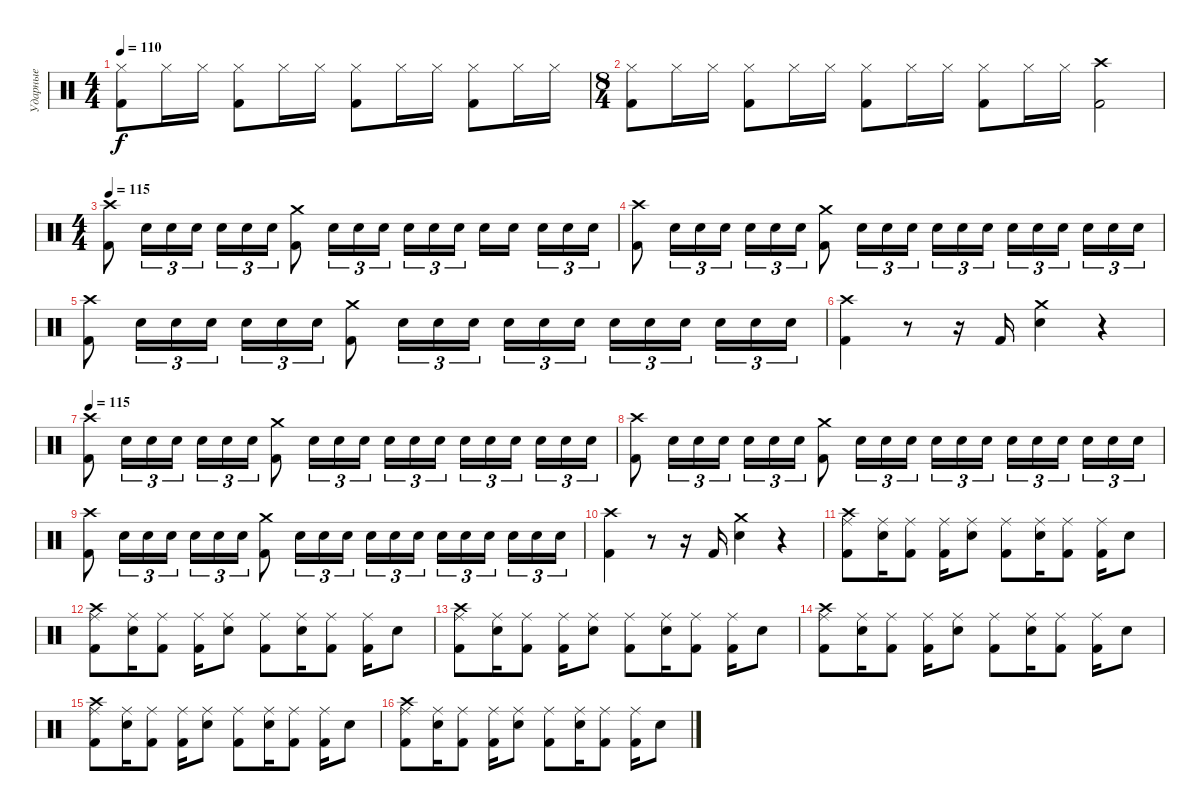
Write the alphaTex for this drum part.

\track ("Ударные" "Ударные") {instrument percussion}
\staff {score}
\articulation defaults
\ts (4 4)
\tempo 110
\clef neutral
\ks c
("Kick (hit) 2" "Hi-Hat (closed)").8{dy f} "Hi-Hat (closed)".16 "Hi-Hat (closed)".16 ("Kick (hit) 2" "Hi-Hat (closed)").8 "Hi-Hat (closed)".16 "Hi-Hat (closed)".16 ("Kick (hit) 2" "Hi-Hat (closed)").8 "Hi-Hat (closed)".16 "Hi-Hat (closed)".16 ("Kick (hit) 2" "Hi-Hat (closed)").8 "Hi-Hat (closed)".16 "Hi-Hat (closed)".16 |
\ts (8 4)
("Kick (hit) 2" "Hi-Hat (closed)").8 "Hi-Hat (closed)".16 "Hi-Hat (closed)".16 ("Kick (hit) 2" "Hi-Hat (closed)").8 "Hi-Hat (closed)".16 "Hi-Hat (closed)".16 ("Kick (hit) 2" "Hi-Hat (closed)").8 "Hi-Hat (closed)".16 "Hi-Hat (closed)".16 ("Kick (hit) 2" "Hi-Hat (closed)").8 "Hi-Hat (closed)".16 "Hi-Hat (closed)".16 ("Crash high (hit)" "Kick (hit) 2").2 |
\ts (4 4)
\tempo 115
("Kick (hit) 2" "Crash high (hit)").8 "Electric Snare (hit)".16{tu (3 2)} "Electric Snare (hit)".16{tu (3 2)} "Electric Snare (hit)".16{tu (3 2)} "Electric Snare (hit)".16{tu (3 2)} "Electric Snare (hit)".16{tu (3 2)} "Electric Snare (hit)".16{tu (3 2)} ("Kick (hit) 2" "Crash medium (hit)").8 "Electric Snare (hit)".16{tu (3 2)} "Electric Snare (hit)".16{tu (3 2)} "Electric Snare (hit)".16{tu (3 2)} "Electric Snare (hit)".16{tu (3 2)} "Electric Snare (hit)".16{tu (3 2)} "Electric Snare (hit)".16{tu (3 2)} "Electric Snare (hit)".16 "Electric Snare (hit)".16 "Electric Snare (hit)".16{tu (3 2)} "Electric Snare (hit)".16{tu (3 2)} "Electric Snare (hit)".16{tu (3 2)} |
("Kick (hit) 2" "Crash high (hit)").8 "Electric Snare (hit)".16{tu (3 2)} "Electric Snare (hit)".16{tu (3 2)} "Electric Snare (hit)".16{tu (3 2)} "Electric Snare (hit)".16{tu (3 2)} "Electric Snare (hit)".16{tu (3 2)} "Electric Snare (hit)".16{tu (3 2)} ("Kick (hit) 2" "Crash medium (hit)").8 "Electric Snare (hit)".16{tu (3 2)} "Electric Snare (hit)".16{tu (3 2)} "Electric Snare (hit)".16{tu (3 2)} "Electric Snare (hit)".16{tu (3 2)} "Electric Snare (hit)".16{tu (3 2)} "Electric Snare (hit)".16{tu (3 2)} "Electric Snare (hit)".16{tu (3 2)} "Electric Snare (hit)".16{tu (3 2)} "Electric Snare (hit)".16{tu (3 2)} "Electric Snare (hit)".16{tu (3 2)} "Electric Snare (hit)".16{tu (3 2)} "Electric Snare (hit)".16{tu (3 2)} |
("Kick (hit) 2" "Crash high (hit)").8 "Electric Snare (hit)".16{tu (3 2)} "Electric Snare (hit)".16{tu (3 2)} "Electric Snare (hit)".16{tu (3 2)} "Electric Snare (hit)".16{tu (3 2)} "Electric Snare (hit)".16{tu (3 2)} "Electric Snare (hit)".16{tu (3 2)} ("Kick (hit) 2" "Crash medium (hit)").8 "Electric Snare (hit)".16{tu (3 2)} "Electric Snare (hit)".16{tu (3 2)} "Electric Snare (hit)".16{tu (3 2)} "Electric Snare (hit)".16{tu (3 2)} "Electric Snare (hit)".16{tu (3 2)} "Electric Snare (hit)".16{tu (3 2)} "Electric Snare (hit)".16{tu (3 2)} "Electric Snare (hit)".16{tu (3 2)} "Electric Snare (hit)".16{tu (3 2)} "Electric Snare (hit)".16{tu (3 2)} "Electric Snare (hit)".16{tu (3 2)} "Electric Snare (hit)".16{tu (3 2)} |
("Kick (hit) 2" "Crash high (hit)").4 r.8 r.16 "Kick (hit) 2".16 ("Electric Snare (hit)" "Crash medium (hit)").4 r.4 |
\tempo 115
("Kick (hit) 2" "Crash high (hit)").8 "Electric Snare (hit)".16{tu (3 2)} "Electric Snare (hit)".16{tu (3 2)} "Electric Snare (hit)".16{tu (3 2)} "Electric Snare (hit)".16{tu (3 2)} "Electric Snare (hit)".16{tu (3 2)} "Electric Snare (hit)".16{tu (3 2)} ("Kick (hit) 2" "Crash medium (hit)").8 "Electric Snare (hit)".16{tu (3 2)} "Electric Snare (hit)".16{tu (3 2)} "Electric Snare (hit)".16{tu (3 2)} "Electric Snare (hit)".16{tu (3 2)} "Electric Snare (hit)".16{tu (3 2)} "Electric Snare (hit)".16{tu (3 2)} "Electric Snare (hit)".16{tu (3 2)} "Electric Snare (hit)".16{tu (3 2)} "Electric Snare (hit)".16{tu (3 2)} "Electric Snare (hit)".16{tu (3 2)} "Electric Snare (hit)".16{tu (3 2)} "Electric Snare (hit)".16{tu (3 2)} |
("Kick (hit) 2" "Crash high (hit)").8 "Electric Snare (hit)".16{tu (3 2)} "Electric Snare (hit)".16{tu (3 2)} "Electric Snare (hit)".16{tu (3 2)} "Electric Snare (hit)".16{tu (3 2)} "Electric Snare (hit)".16{tu (3 2)} "Electric Snare (hit)".16{tu (3 2)} ("Kick (hit) 2" "Crash medium (hit)").8 "Electric Snare (hit)".16{tu (3 2)} "Electric Snare (hit)".16{tu (3 2)} "Electric Snare (hit)".16{tu (3 2)} "Electric Snare (hit)".16{tu (3 2)} "Electric Snare (hit)".16{tu (3 2)} "Electric Snare (hit)".16{tu (3 2)} "Electric Snare (hit)".16{tu (3 2)} "Electric Snare (hit)".16{tu (3 2)} "Electric Snare (hit)".16{tu (3 2)} "Electric Snare (hit)".16{tu (3 2)} "Electric Snare (hit)".16{tu (3 2)} "Electric Snare (hit)".16{tu (3 2)} |
("Kick (hit) 2" "Crash high (hit)").8 "Electric Snare (hit)".16{tu (3 2)} "Electric Snare (hit)".16{tu (3 2)} "Electric Snare (hit)".16{tu (3 2)} "Electric Snare (hit)".16{tu (3 2)} "Electric Snare (hit)".16{tu (3 2)} "Electric Snare (hit)".16{tu (3 2)} ("Kick (hit) 2" "Crash medium (hit)").8 "Electric Snare (hit)".16{tu (3 2)} "Electric Snare (hit)".16{tu (3 2)} "Electric Snare (hit)".16{tu (3 2)} "Electric Snare (hit)".16{tu (3 2)} "Electric Snare (hit)".16{tu (3 2)} "Electric Snare (hit)".16{tu (3 2)} "Electric Snare (hit)".16{tu (3 2)} "Electric Snare (hit)".16{tu (3 2)} "Electric Snare (hit)".16{tu (3 2)} "Electric Snare (hit)".16{tu (3 2)} "Electric Snare (hit)".16{tu (3 2)} "Electric Snare (hit)".16{tu (3 2)} |
("Kick (hit) 2" "Crash high (hit)").4 r.8 r.16 "Kick (hit) 2".16 ("Electric Snare (hit)" "Crash medium (hit)").4 r.4 |
("Kick (hit) 2" "Crash high (hit)" "Ride (middle)").8 ("Electric Snare (hit)" "Ride (middle)").16 ("Kick (hit) 2" "Ride (middle)").8 ("Kick (hit) 2" "Ride (middle)").16 ("Electric Snare (hit)" "Ride (middle)").8 ("Kick (hit) 2" "Ride (middle)").8 ("Electric Snare (hit)" "Ride (middle)").16 ("Kick (hit) 2" "Ride (middle)").8 ("Kick (hit) 2" "Ride (middle)").16 "Electric Snare (hit)".8 |
("Kick (hit) 2" "Crash high (hit)" "Ride (middle)").8 ("Electric Snare (hit)" "Ride (middle)").16 ("Kick (hit) 2" "Ride (middle)").8 ("Kick (hit) 2" "Ride (middle)").16 ("Electric Snare (hit)" "Ride (middle)").8 ("Kick (hit) 2" "Ride (middle)").8 ("Electric Snare (hit)" "Ride (middle)").16 ("Kick (hit) 2" "Ride (middle)").8 ("Kick (hit) 2" "Ride (middle)").16 "Electric Snare (hit)".8 |
("Kick (hit) 2" "Crash high (hit)" "Ride (middle)").8 ("Electric Snare (hit)" "Ride (middle)").16 ("Kick (hit) 2" "Ride (middle)").8 ("Kick (hit) 2" "Ride (middle)").16 ("Electric Snare (hit)" "Ride (middle)").8 ("Kick (hit) 2" "Ride (middle)").8 ("Electric Snare (hit)" "Ride (middle)").16 ("Kick (hit) 2" "Ride (middle)").8 ("Kick (hit) 2" "Ride (middle)").16 "Electric Snare (hit)".8 |
("Kick (hit) 2" "Crash high (hit)" "Ride (middle)").8 ("Electric Snare (hit)" "Ride (middle)").16 ("Kick (hit) 2" "Ride (middle)").8 ("Kick (hit) 2" "Ride (middle)").16 ("Electric Snare (hit)" "Ride (middle)").8 ("Kick (hit) 2" "Ride (middle)").8 ("Electric Snare (hit)" "Ride (middle)").16 ("Kick (hit) 2" "Ride (middle)").8 ("Kick (hit) 2" "Ride (middle)").16 "Electric Snare (hit)".8 |
("Kick (hit) 2" "Crash high (hit)" "Ride (middle)").8 ("Electric Snare (hit)" "Ride (middle)").16 ("Kick (hit) 2" "Ride (middle)").8 ("Kick (hit) 2" "Ride (middle)").16 ("Electric Snare (hit)" "Ride (middle)").8 ("Kick (hit) 2" "Ride (middle)").8 ("Electric Snare (hit)" "Ride (middle)").16 ("Kick (hit) 2" "Ride (middle)").8 ("Kick (hit) 2" "Ride (middle)").16 "Electric Snare (hit)".8 |
("Kick (hit) 2" "Crash high (hit)" "Ride (middle)").8 ("Electric Snare (hit)" "Ride (middle)").16 ("Kick (hit) 2" "Ride (middle)").8 ("Kick (hit) 2" "Ride (middle)").16 ("Electric Snare (hit)" "Ride (middle)").8 ("Kick (hit) 2" "Ride (middle)").8 ("Electric Snare (hit)" "Ride (middle)").16 ("Kick (hit) 2" "Ride (middle)").8 ("Kick (hit) 2" "Ride (middle)").16 "Electric Snare (hit)".8
